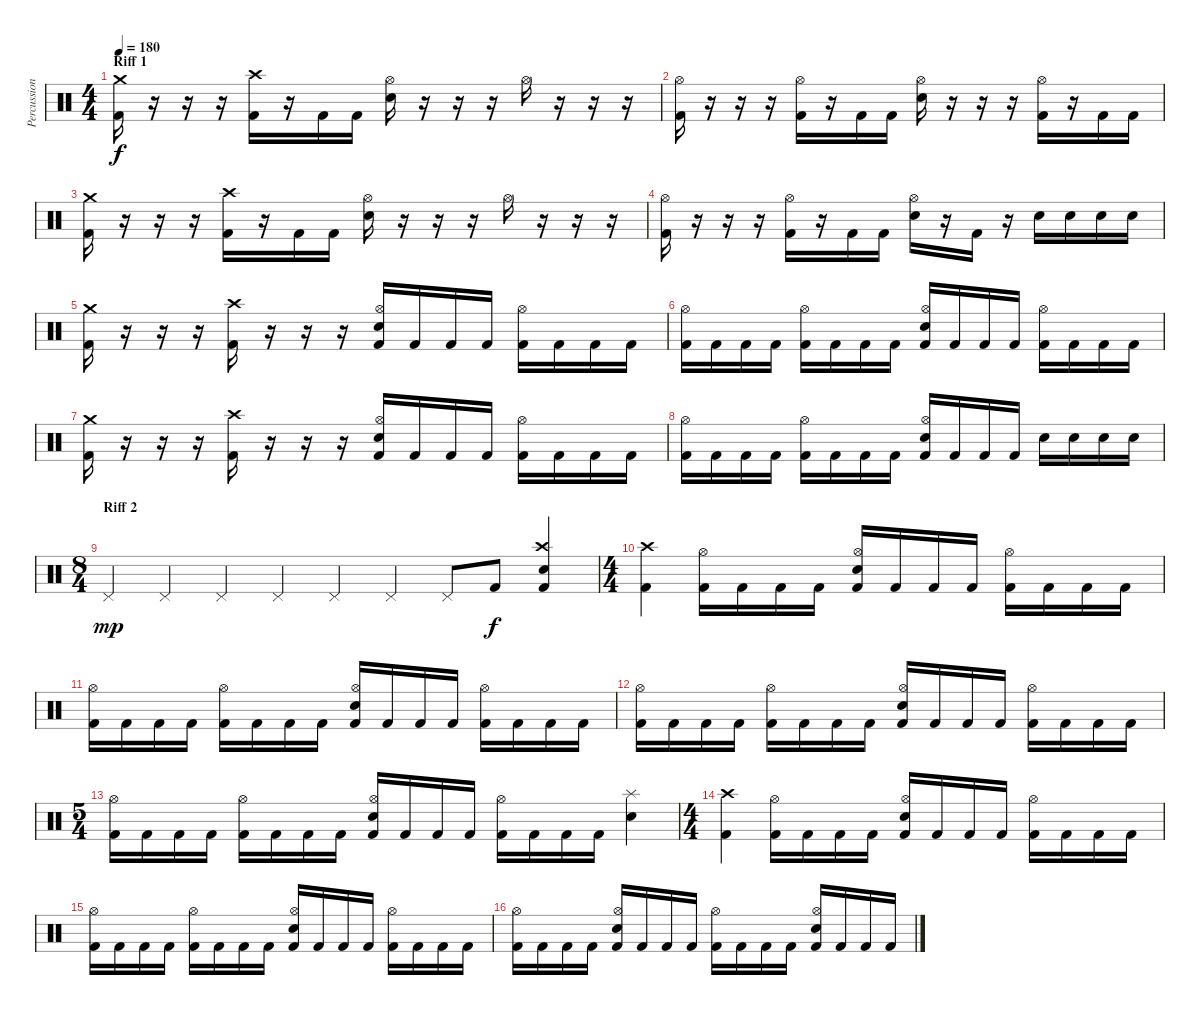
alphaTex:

\track ("Percussion" "Percussion") {instrument percussion}
\staff {score}
\articulation defaults
\ts (4 4)
\section ("" "Riff 1")
\tempo 180
\clef neutral
\ks c
("Crash medium (hit)" "Kick (hit) 2").16{dy f} r.16 r.16 r.16 ("Crash high (hit)" "Kick (hit) 2").16 r.16 "Kick (hit) 2".16 "Kick (hit) 2".16 ("Hi-Hat (open)" "Electric Snare (hit)").16 r.16 r.16 r.16 "Hi-Hat (open)".16 r.16 r.16 r.16 |
("Hi-Hat (open)" "Kick (hit) 2").16 r.16 r.16 r.16 ("Hi-Hat (open)" "Kick (hit) 2").16 r.16 "Kick (hit) 2".16 "Kick (hit) 2".16 ("Hi-Hat (open)" "Electric Snare (hit)").16 r.16 r.16 r.16 ("Hi-Hat (open)" "Kick (hit) 2").16 r.16 "Kick (hit) 2".16 "Kick (hit) 2".16 |
("Crash medium (hit)" "Kick (hit) 2").16 r.16 r.16 r.16 ("Crash high (hit)" "Kick (hit) 2").16 r.16 "Kick (hit) 2".16 "Kick (hit) 2".16 ("Hi-Hat (open)" "Electric Snare (hit)").16 r.16 r.16 r.16 "Hi-Hat (open)".16 r.16 r.16 r.16 |
("Hi-Hat (open)" "Kick (hit) 2").16 r.16 r.16 r.16 ("Hi-Hat (open)" "Kick (hit) 2").16 r.16 "Kick (hit) 2".16 "Kick (hit) 2".16 ("Hi-Hat (open)" "Electric Snare (hit)").16 r.16 "Kick (hit) 2".16 r.16 "Electric Snare (hit)".16 "Electric Snare (hit)".16 "Electric Snare (hit)".16 "Electric Snare (hit)".16 |
("Crash medium (hit)" "Kick (hit) 2").16 r.16 r.16 r.16 ("Crash high (hit)" "Kick (hit) 2").16 r.16 r.16 r.16 ("Hi-Hat (open)" "Electric Snare (hit)" "Kick (hit) 2").16 "Kick (hit) 2".16 "Kick (hit) 2".16 "Kick (hit) 2".16 ("Hi-Hat (open)" "Kick (hit) 2").16 "Kick (hit) 2".16 "Kick (hit) 2".16 "Kick (hit) 2".16 |
("Hi-Hat (open)" "Kick (hit) 2").16 "Kick (hit) 2".16 "Kick (hit) 2".16 "Kick (hit) 2".16 ("Hi-Hat (open)" "Kick (hit) 2").16 "Kick (hit) 2".16 "Kick (hit) 2".16 "Kick (hit) 2".16 ("Hi-Hat (open)" "Electric Snare (hit)" "Kick (hit) 2").16 "Kick (hit) 2".16 "Kick (hit) 2".16 "Kick (hit) 2".16 ("Hi-Hat (open)" "Kick (hit) 2").16 "Kick (hit) 2".16 "Kick (hit) 2".16 "Kick (hit) 2".16 |
("Crash medium (hit)" "Kick (hit) 2").16 r.16 r.16 r.16 ("Crash high (hit)" "Kick (hit) 2").16 r.16 r.16 r.16 ("Hi-Hat (open)" "Electric Snare (hit)" "Kick (hit) 2").16 "Kick (hit) 2".16 "Kick (hit) 2".16 "Kick (hit) 2".16 ("Hi-Hat (open)" "Kick (hit) 2").16 "Kick (hit) 2".16 "Kick (hit) 2".16 "Kick (hit) 2".16 |
("Hi-Hat (open)" "Kick (hit) 2").16 "Kick (hit) 2".16 "Kick (hit) 2".16 "Kick (hit) 2".16 ("Hi-Hat (open)" "Kick (hit) 2").16 "Kick (hit) 2".16 "Kick (hit) 2".16 "Kick (hit) 2".16 ("Hi-Hat (open)" "Electric Snare (hit)" "Kick (hit) 2").16 "Kick (hit) 2".16 "Kick (hit) 2".16 "Kick (hit) 2".16 "Electric Snare (hit)".16 "Electric Snare (hit)".16 "Electric Snare (hit)".16 "Electric Snare (hit)".16 |
\ts (8 4)
\section ("" "Riff 2")
"Pedal Hi-Hat (hit)".4{dy mp} "Pedal Hi-Hat (hit)".4 "Pedal Hi-Hat (hit)".4 "Pedal Hi-Hat (hit)".4 "Pedal Hi-Hat (hit)".4 "Pedal Hi-Hat (hit)".4 "Pedal Hi-Hat (hit)".8 "Kick (hit) 2".8{dy f} ("Crash high (hit)" "Electric Snare (hit)" "Kick (hit) 2").4 |
\ts (4 4)
("Crash high (hit)" "Kick (hit) 2").4 ("Hi-Hat (open)" "Kick (hit) 2").16 "Kick (hit) 2".16 "Kick (hit) 2".16 "Kick (hit) 2".16 ("Hi-Hat (open)" "Electric Snare (hit)" "Kick (hit) 2").16 "Kick (hit) 2".16 "Kick (hit) 2".16 "Kick (hit) 2".16 ("Hi-Hat (open)" "Kick (hit) 2").16 "Kick (hit) 2".16 "Kick (hit) 2".16 "Kick (hit) 2".16 |
("Hi-Hat (open)" "Kick (hit) 2").16 "Kick (hit) 2".16 "Kick (hit) 2".16 "Kick (hit) 2".16 ("Hi-Hat (open)" "Kick (hit) 2").16 "Kick (hit) 2".16 "Kick (hit) 2".16 "Kick (hit) 2".16 ("Hi-Hat (open)" "Electric Snare (hit)" "Kick (hit) 2").16 "Kick (hit) 2".16 "Kick (hit) 2".16 "Kick (hit) 2".16 ("Hi-Hat (open)" "Kick (hit) 2").16 "Kick (hit) 2".16 "Kick (hit) 2".16 "Kick (hit) 2".16 |
("Hi-Hat (open)" "Kick (hit) 2").16 "Kick (hit) 2".16 "Kick (hit) 2".16 "Kick (hit) 2".16 ("Hi-Hat (open)" "Kick (hit) 2").16 "Kick (hit) 2".16 "Kick (hit) 2".16 "Kick (hit) 2".16 ("Hi-Hat (open)" "Electric Snare (hit)" "Kick (hit) 2").16 "Kick (hit) 2".16 "Kick (hit) 2".16 "Kick (hit) 2".16 ("Hi-Hat (open)" "Kick (hit) 2").16 "Kick (hit) 2".16 "Kick (hit) 2".16 "Kick (hit) 2".16 |
\ts (5 4)
("Hi-Hat (open)" "Kick (hit) 2").16 "Kick (hit) 2".16 "Kick (hit) 2".16 "Kick (hit) 2".16 ("Hi-Hat (open)" "Kick (hit) 2").16 "Kick (hit) 2".16 "Kick (hit) 2".16 "Kick (hit) 2".16 ("Hi-Hat (open)" "Electric Snare (hit)" "Kick (hit) 2").16 "Kick (hit) 2".16 "Kick (hit) 2".16 "Kick (hit) 2".16 ("Hi-Hat (open)" "Kick (hit) 2").16 "Kick (hit) 2".16 "Kick (hit) 2".16 "Kick (hit) 2".16 ("Splash (hit)" "Electric Snare (hit)").4 |
\ts (4 4)
("Crash high (hit)" "Kick (hit) 2").4 ("Hi-Hat (open)" "Kick (hit) 2").16 "Kick (hit) 2".16 "Kick (hit) 2".16 "Kick (hit) 2".16 ("Hi-Hat (open)" "Electric Snare (hit)" "Kick (hit) 2").16 "Kick (hit) 2".16 "Kick (hit) 2".16 "Kick (hit) 2".16 ("Hi-Hat (open)" "Kick (hit) 2").16 "Kick (hit) 2".16 "Kick (hit) 2".16 "Kick (hit) 2".16 |
("Hi-Hat (open)" "Kick (hit) 2").16 "Kick (hit) 2".16 "Kick (hit) 2".16 "Kick (hit) 2".16 ("Hi-Hat (open)" "Kick (hit) 2").16 "Kick (hit) 2".16 "Kick (hit) 2".16 "Kick (hit) 2".16 ("Hi-Hat (open)" "Electric Snare (hit)" "Kick (hit) 2").16 "Kick (hit) 2".16 "Kick (hit) 2".16 "Kick (hit) 2".16 ("Hi-Hat (open)" "Kick (hit) 2").16 "Kick (hit) 2".16 "Kick (hit) 2".16 "Kick (hit) 2".16 |
("Hi-Hat (open)" "Kick (hit) 2").16 "Kick (hit) 2".16 "Kick (hit) 2".16 "Kick (hit) 2".16 ("Hi-Hat (open)" "Electric Snare (hit)" "Kick (hit) 2").16 "Kick (hit) 2".16 "Kick (hit) 2".16 "Kick (hit) 2".16 ("Hi-Hat (open)" "Kick (hit) 2").16 "Kick (hit) 2".16 "Kick (hit) 2".16 "Kick (hit) 2".16 ("Hi-Hat (open)" "Electric Snare (hit)" "Kick (hit) 2").16 "Kick (hit) 2".16 "Kick (hit) 2".16 "Kick (hit) 2".16
